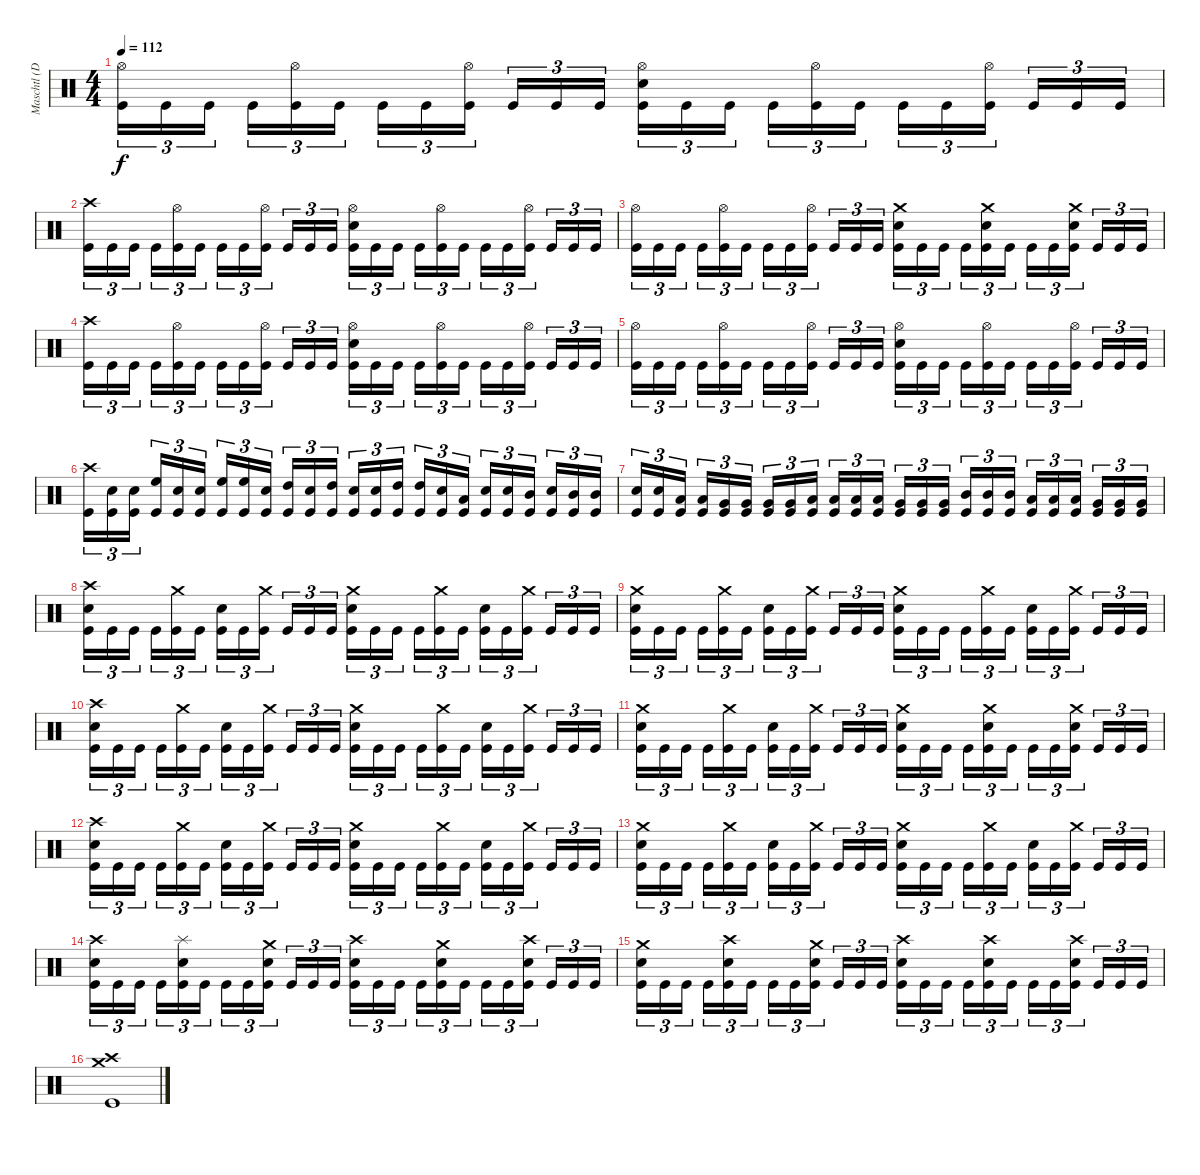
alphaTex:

\track ("Maschtl (Drums)" "Maschtl (D") {instrument percussion}
\staff {score}
\articulation defaults
\ts (4 4)
\tempo 112
\clef neutral
\ks c
("Hi-Hat (open)" "Kick (hit)").16{tu (3 2) dy f} "Kick (hit)".16{tu (3 2)} "Kick (hit)".16{tu (3 2)} "Kick (hit)".16{tu (3 2)} ("Hi-Hat (open)" "Kick (hit)").16{tu (3 2)} "Kick (hit)".16{tu (3 2)} "Kick (hit)".16{tu (3 2)} "Kick (hit)".16{tu (3 2)} ("Hi-Hat (open)" "Kick (hit)").16{tu (3 2)} "Kick (hit)".16{tu (3 2)} "Kick (hit)".16{tu (3 2)} "Kick (hit)".16{tu (3 2)} ("Hi-Hat (open)" "Electric Snare (hit)" "Kick (hit)").16{tu (3 2)} "Kick (hit)".16{tu (3 2)} "Kick (hit)".16{tu (3 2)} "Kick (hit)".16{tu (3 2)} ("Hi-Hat (open)" "Kick (hit)").16{tu (3 2)} "Kick (hit)".16{tu (3 2)} "Kick (hit)".16{tu (3 2)} "Kick (hit)".16{tu (3 2)} ("Hi-Hat (open)" "Kick (hit)").16{tu (3 2)} "Kick (hit)".16{tu (3 2)} "Kick (hit)".16{tu (3 2)} "Kick (hit)".16{tu (3 2)} |
("Crash high (hit)" "Kick (hit)").16{tu (3 2)} "Kick (hit)".16{tu (3 2)} "Kick (hit)".16{tu (3 2)} "Kick (hit)".16{tu (3 2)} ("Hi-Hat (open)" "Kick (hit)").16{tu (3 2)} "Kick (hit)".16{tu (3 2)} "Kick (hit)".16{tu (3 2)} "Kick (hit)".16{tu (3 2)} ("Hi-Hat (open)" "Kick (hit)").16{tu (3 2)} "Kick (hit)".16{tu (3 2)} "Kick (hit)".16{tu (3 2)} "Kick (hit)".16{tu (3 2)} ("Hi-Hat (open)" "Electric Snare (hit)" "Kick (hit)").16{tu (3 2)} "Kick (hit)".16{tu (3 2)} "Kick (hit)".16{tu (3 2)} "Kick (hit)".16{tu (3 2)} ("Hi-Hat (open)" "Kick (hit)").16{tu (3 2)} "Kick (hit)".16{tu (3 2)} "Kick (hit)".16{tu (3 2)} "Kick (hit)".16{tu (3 2)} ("Hi-Hat (open)" "Kick (hit)").16{tu (3 2)} "Kick (hit)".16{tu (3 2)} "Kick (hit)".16{tu (3 2)} "Kick (hit)".16{tu (3 2)} |
("Hi-Hat (open)" "Kick (hit)").16{tu (3 2)} "Kick (hit)".16{tu (3 2)} "Kick (hit)".16{tu (3 2)} "Kick (hit)".16{tu (3 2)} ("Hi-Hat (open)" "Kick (hit)").16{tu (3 2)} "Kick (hit)".16{tu (3 2)} "Kick (hit)".16{tu (3 2)} "Kick (hit)".16{tu (3 2)} ("Hi-Hat (open)" "Kick (hit)").16{tu (3 2)} "Kick (hit)".16{tu (3 2)} "Kick (hit)".16{tu (3 2)} "Kick (hit)".16{tu (3 2)} ("Crash medium (hit)" "Electric Snare (hit)" "Kick (hit)").16{tu (3 2)} "Kick (hit)".16{tu (3 2)} "Kick (hit)".16{tu (3 2)} "Kick (hit)".16{tu (3 2)} ("Crash medium (hit)" "Electric Snare (hit)" "Kick (hit)").16{tu (3 2)} "Kick (hit)".16{tu (3 2)} "Kick (hit)".16{tu (3 2)} "Kick (hit)".16{tu (3 2)} ("Crash medium (hit)" "Electric Snare (hit)" "Kick (hit)").16{tu (3 2)} "Kick (hit)".16{tu (3 2)} "Kick (hit)".16{tu (3 2)} "Kick (hit)".16{tu (3 2)} |
("Crash high (hit)" "Kick (hit)").16{tu (3 2)} "Kick (hit)".16{tu (3 2)} "Kick (hit)".16{tu (3 2)} "Kick (hit)".16{tu (3 2)} ("Hi-Hat (open)" "Kick (hit)").16{tu (3 2)} "Kick (hit)".16{tu (3 2)} "Kick (hit)".16{tu (3 2)} "Kick (hit)".16{tu (3 2)} ("Hi-Hat (open)" "Kick (hit)").16{tu (3 2)} "Kick (hit)".16{tu (3 2)} "Kick (hit)".16{tu (3 2)} "Kick (hit)".16{tu (3 2)} ("Hi-Hat (open)" "Electric Snare (hit)" "Kick (hit)").16{tu (3 2)} "Kick (hit)".16{tu (3 2)} "Kick (hit)".16{tu (3 2)} "Kick (hit)".16{tu (3 2)} ("Hi-Hat (open)" "Kick (hit)").16{tu (3 2)} "Kick (hit)".16{tu (3 2)} "Kick (hit)".16{tu (3 2)} "Kick (hit)".16{tu (3 2)} ("Hi-Hat (open)" "Kick (hit)").16{tu (3 2)} "Kick (hit)".16{tu (3 2)} "Kick (hit)".16{tu (3 2)} "Kick (hit)".16{tu (3 2)} |
("Hi-Hat (open)" "Kick (hit)").16{tu (3 2)} "Kick (hit)".16{tu (3 2)} "Kick (hit)".16{tu (3 2)} "Kick (hit)".16{tu (3 2)} ("Hi-Hat (open)" "Kick (hit)").16{tu (3 2)} "Kick (hit)".16{tu (3 2)} "Kick (hit)".16{tu (3 2)} "Kick (hit)".16{tu (3 2)} ("Hi-Hat (open)" "Kick (hit)").16{tu (3 2)} "Kick (hit)".16{tu (3 2)} "Kick (hit)".16{tu (3 2)} "Kick (hit)".16{tu (3 2)} ("Hi-Hat (open)" "Electric Snare (hit)" "Kick (hit)").16{tu (3 2)} "Kick (hit)".16{tu (3 2)} "Kick (hit)".16{tu (3 2)} "Kick (hit)".16{tu (3 2)} ("Hi-Hat (open)" "Kick (hit)").16{tu (3 2)} "Kick (hit)".16{tu (3 2)} "Kick (hit)".16{tu (3 2)} "Kick (hit)".16{tu (3 2)} ("Hi-Hat (open)" "Kick (hit)").16{tu (3 2)} "Kick (hit)".16{tu (3 2)} "Kick (hit)".16{tu (3 2)} "Kick (hit)".16{tu (3 2)} |
("Crash high (hit)" "Kick (hit)").16{tu (3 2)} ("Electric Snare (hit)" "Kick (hit)").16{tu (3 2)} ("Electric Snare (hit)" "Kick (hit)").16{tu (3 2)} ("High Floor Tom (hit)" "Kick (hit)").16{tu (3 2)} ("Electric Snare (hit)" "Kick (hit)").16{tu (3 2)} ("Electric Snare (hit)" "Kick (hit)").16{tu (3 2)} ("High Floor Tom (hit)" "Kick (hit)").16{tu (3 2)} ("High Floor Tom (hit)" "Kick (hit)").16{tu (3 2)} ("Electric Snare (hit)" "Kick (hit)").16{tu (3 2)} ("High Tom (hit)" "Kick (hit)").16{tu (3 2)} ("Electric Snare (hit)" "Kick (hit)").16{tu (3 2)} ("High Tom (hit)" "Kick (hit)").16{tu (3 2)} ("Electric Snare (hit)" "Kick (hit)").16{tu (3 2)} ("Electric Snare (hit)" "Kick (hit)").16{tu (3 2)} ("High Tom (hit)" "Kick (hit)").16{tu (3 2)} ("High Tom (hit)" "Kick (hit)").16{tu (3 2)} ("Electric Snare (hit)" "Kick (hit)").16{tu (3 2)} ("Low Tom (hit)" "Kick (hit)").16{tu (3 2)} ("Electric Snare (hit)" "Kick (hit)").16{tu (3 2)} ("Electric Snare (hit)" "Kick (hit)").16{tu (3 2)} ("Mid Tom (hit)" "Kick (hit)").16{tu (3 2)} ("Electric Snare (hit)" "Kick (hit)").16{tu (3 2)} ("Mid Tom (hit)" "Kick (hit)").16{tu (3 2)} ("Mid Tom (hit)" "Kick (hit)").16{tu (3 2)} |
("Electric Snare (hit)" "Kick (hit)").16{tu (3 2)} ("Electric Snare (hit)" "Kick (hit)").16{tu (3 2)} ("Low Tom (hit)" "Kick (hit)").16{tu (3 2)} ("Low Tom (hit)" "Kick (hit)").16{tu (3 2)} ("Very Low Tom (hit)" "Kick (hit)").16{tu (3 2)} ("Very Low Tom (hit)" "Kick (hit)").16{tu (3 2)} ("Very Low Tom (hit)" "Kick (hit)").16{tu (3 2)} ("Very Low Tom (hit)" "Kick (hit)").16{tu (3 2)} ("Low Floor Tom (hit)" "Kick (hit)").16{tu (3 2)} ("Low Floor Tom (hit)" "Kick (hit)").16{tu (3 2)} ("Low Floor Tom (hit)" "Kick (hit)").16{tu (3 2)} ("Low Floor Tom (hit)" "Kick (hit)").16{tu (3 2)} ("Very Low Tom (hit)" "Kick (hit)").16{tu (3 2)} ("Very Low Tom (hit)" "Kick (hit)").16{tu (3 2)} ("Very Low Tom (hit)" "Kick (hit)").16{tu (3 2)} ("Mid Tom (hit)" "Kick (hit)").16{tu (3 2)} ("Mid Tom (hit)" "Kick (hit)").16{tu (3 2)} ("Mid Tom (hit)" "Kick (hit)").16{tu (3 2)} ("Low Tom (hit)" "Kick (hit)").16{tu (3 2)} ("Low Tom (hit)" "Kick (hit)").16{tu (3 2)} ("Low Tom (hit)" "Kick (hit)").16{tu (3 2)} ("Very Low Tom (hit)" "Kick (hit)").16{tu (3 2)} ("Very Low Tom (hit)" "Kick (hit)").16{tu (3 2)} ("Very Low Tom (hit)" "Kick (hit)").16{tu (3 2)} |
("Crash high (hit)" "Electric Snare (hit)" "Kick (hit)").16{tu (3 2)} "Kick (hit)".16{tu (3 2)} "Kick (hit)".16{tu (3 2)} "Kick (hit)".16{tu (3 2)} ("Crash medium (hit)" "Kick (hit)").16{tu (3 2)} "Kick (hit)".16{tu (3 2)} ("Electric Snare (hit)" "Kick (hit)").16{tu (3 2)} "Kick (hit)".16{tu (3 2)} ("Crash medium (hit)" "Kick (hit)").16{tu (3 2)} "Kick (hit)".16{tu (3 2)} "Kick (hit)".16{tu (3 2)} "Kick (hit)".16{tu (3 2)} ("Crash medium (hit)" "Electric Snare (hit)" "Kick (hit)").16{tu (3 2)} "Kick (hit)".16{tu (3 2)} "Kick (hit)".16{tu (3 2)} "Kick (hit)".16{tu (3 2)} ("Crash medium (hit)" "Kick (hit)").16{tu (3 2)} "Kick (hit)".16{tu (3 2)} ("Electric Snare (hit)" "Kick (hit)").16{tu (3 2)} "Kick (hit)".16{tu (3 2)} ("Crash medium (hit)" "Kick (hit)").16{tu (3 2)} "Kick (hit)".16{tu (3 2)} "Kick (hit)".16{tu (3 2)} "Kick (hit)".16{tu (3 2)} |
("Crash medium (hit)" "Electric Snare (hit)" "Kick (hit)").16{tu (3 2)} "Kick (hit)".16{tu (3 2)} "Kick (hit)".16{tu (3 2)} "Kick (hit)".16{tu (3 2)} ("Crash medium (hit)" "Kick (hit)").16{tu (3 2)} "Kick (hit)".16{tu (3 2)} ("Electric Snare (hit)" "Kick (hit)").16{tu (3 2)} "Kick (hit)".16{tu (3 2)} ("Crash medium (hit)" "Kick (hit)").16{tu (3 2)} "Kick (hit)".16{tu (3 2)} "Kick (hit)".16{tu (3 2)} "Kick (hit)".16{tu (3 2)} ("Crash medium (hit)" "Electric Snare (hit)" "Kick (hit)").16{tu (3 2)} "Kick (hit)".16{tu (3 2)} "Kick (hit)".16{tu (3 2)} "Kick (hit)".16{tu (3 2)} ("Crash medium (hit)" "Kick (hit)").16{tu (3 2)} "Kick (hit)".16{tu (3 2)} ("Electric Snare (hit)" "Kick (hit)").16{tu (3 2)} "Kick (hit)".16{tu (3 2)} ("Crash medium (hit)" "Kick (hit)").16{tu (3 2)} "Kick (hit)".16{tu (3 2)} "Kick (hit)".16{tu (3 2)} "Kick (hit)".16{tu (3 2)} |
("Crash high (hit)" "Electric Snare (hit)" "Kick (hit)").16{tu (3 2)} "Kick (hit)".16{tu (3 2)} "Kick (hit)".16{tu (3 2)} "Kick (hit)".16{tu (3 2)} ("Crash medium (hit)" "Kick (hit)").16{tu (3 2)} "Kick (hit)".16{tu (3 2)} ("Electric Snare (hit)" "Kick (hit)").16{tu (3 2)} "Kick (hit)".16{tu (3 2)} ("Crash medium (hit)" "Kick (hit)").16{tu (3 2)} "Kick (hit)".16{tu (3 2)} "Kick (hit)".16{tu (3 2)} "Kick (hit)".16{tu (3 2)} ("Crash medium (hit)" "Electric Snare (hit)" "Kick (hit)").16{tu (3 2)} "Kick (hit)".16{tu (3 2)} "Kick (hit)".16{tu (3 2)} "Kick (hit)".16{tu (3 2)} ("Crash medium (hit)" "Kick (hit)").16{tu (3 2)} "Kick (hit)".16{tu (3 2)} ("Electric Snare (hit)" "Kick (hit)").16{tu (3 2)} "Kick (hit)".16{tu (3 2)} ("Crash medium (hit)" "Kick (hit)").16{tu (3 2)} "Kick (hit)".16{tu (3 2)} "Kick (hit)".16{tu (3 2)} "Kick (hit)".16{tu (3 2)} |
("Crash medium (hit)" "Electric Snare (hit)" "Kick (hit)").16{tu (3 2)} "Kick (hit)".16{tu (3 2)} "Kick (hit)".16{tu (3 2)} "Kick (hit)".16{tu (3 2)} ("Crash medium (hit)" "Kick (hit)").16{tu (3 2)} "Kick (hit)".16{tu (3 2)} ("Electric Snare (hit)" "Kick (hit)").16{tu (3 2)} "Kick (hit)".16{tu (3 2)} ("Crash medium (hit)" "Kick (hit)").16{tu (3 2)} "Kick (hit)".16{tu (3 2)} "Kick (hit)".16{tu (3 2)} "Kick (hit)".16{tu (3 2)} ("Crash medium (hit)" "Electric Snare (hit)" "Kick (hit)").16{tu (3 2)} "Kick (hit)".16{tu (3 2)} "Kick (hit)".16{tu (3 2)} "Kick (hit)".16{tu (3 2)} ("Crash medium (hit)" "Electric Snare (hit)" "Kick (hit)").16{tu (3 2)} "Kick (hit)".16{tu (3 2)} "Kick (hit)".16{tu (3 2)} "Kick (hit)".16{tu (3 2)} ("Crash medium (hit)" "Electric Snare (hit)" "Kick (hit)").16{tu (3 2)} "Kick (hit)".16{tu (3 2)} "Kick (hit)".16{tu (3 2)} "Kick (hit)".16{tu (3 2)} |
("Crash high (hit)" "Electric Snare (hit)" "Kick (hit)").16{tu (3 2)} "Kick (hit)".16{tu (3 2)} "Kick (hit)".16{tu (3 2)} "Kick (hit)".16{tu (3 2)} ("Crash medium (hit)" "Kick (hit)").16{tu (3 2)} "Kick (hit)".16{tu (3 2)} ("Electric Snare (hit)" "Kick (hit)").16{tu (3 2)} "Kick (hit)".16{tu (3 2)} ("Crash medium (hit)" "Kick (hit)").16{tu (3 2)} "Kick (hit)".16{tu (3 2)} "Kick (hit)".16{tu (3 2)} "Kick (hit)".16{tu (3 2)} ("Crash medium (hit)" "Electric Snare (hit)" "Kick (hit)").16{tu (3 2)} "Kick (hit)".16{tu (3 2)} "Kick (hit)".16{tu (3 2)} "Kick (hit)".16{tu (3 2)} ("Crash medium (hit)" "Kick (hit)").16{tu (3 2)} "Kick (hit)".16{tu (3 2)} ("Electric Snare (hit)" "Kick (hit)").16{tu (3 2)} "Kick (hit)".16{tu (3 2)} ("Crash medium (hit)" "Kick (hit)").16{tu (3 2)} "Kick (hit)".16{tu (3 2)} "Kick (hit)".16{tu (3 2)} "Kick (hit)".16{tu (3 2)} |
("Crash medium (hit)" "Electric Snare (hit)" "Kick (hit)").16{tu (3 2)} "Kick (hit)".16{tu (3 2)} "Kick (hit)".16{tu (3 2)} "Kick (hit)".16{tu (3 2)} ("Crash medium (hit)" "Kick (hit)").16{tu (3 2)} "Kick (hit)".16{tu (3 2)} ("Electric Snare (hit)" "Kick (hit)").16{tu (3 2)} "Kick (hit)".16{tu (3 2)} ("Crash medium (hit)" "Kick (hit)").16{tu (3 2)} "Kick (hit)".16{tu (3 2)} "Kick (hit)".16{tu (3 2)} "Kick (hit)".16{tu (3 2)} ("Crash medium (hit)" "Electric Snare (hit)" "Kick (hit)").16{tu (3 2)} "Kick (hit)".16{tu (3 2)} "Kick (hit)".16{tu (3 2)} "Kick (hit)".16{tu (3 2)} ("Crash medium (hit)" "Kick (hit)").16{tu (3 2)} "Kick (hit)".16{tu (3 2)} ("Electric Snare (hit)" "Kick (hit)").16{tu (3 2)} "Kick (hit)".16{tu (3 2)} ("Crash medium (hit)" "Kick (hit)").16{tu (3 2)} "Kick (hit)".16{tu (3 2)} "Kick (hit)".16{tu (3 2)} "Kick (hit)".16{tu (3 2)} |
("Crash high (hit)" "Electric Snare (hit)" "Kick (hit)").16{tu (3 2)} "Kick (hit)".16{tu (3 2)} "Kick (hit)".16{tu (3 2)} "Kick (hit)".16{tu (3 2)} ("Splash (hit)" "Electric Snare (hit)" "Kick (hit)").16{tu (3 2)} "Kick (hit)".16{tu (3 2)} "Kick (hit)".16{tu (3 2)} "Kick (hit)".16{tu (3 2)} ("Crash medium (hit)" "Electric Snare (hit)" "Kick (hit)").16{tu (3 2)} "Kick (hit)".16{tu (3 2)} "Kick (hit)".16{tu (3 2)} "Kick (hit)".16{tu (3 2)} ("Crash high (hit)" "Electric Snare (hit)" "Kick (hit)").16{tu (3 2)} "Kick (hit)".16{tu (3 2)} "Kick (hit)".16{tu (3 2)} "Kick (hit)".16{tu (3 2)} ("Crash medium (hit)" "Electric Snare (hit)" "Kick (hit)").16{tu (3 2)} "Kick (hit)".16{tu (3 2)} "Kick (hit)".16{tu (3 2)} "Kick (hit)".16{tu (3 2)} ("Crash high (hit)" "Electric Snare (hit)" "Kick (hit)").16{tu (3 2)} "Kick (hit)".16{tu (3 2)} "Kick (hit)".16{tu (3 2)} "Kick (hit)".16{tu (3 2)} |
("Crash medium (hit)" "Electric Snare (hit)" "Kick (hit)").16{tu (3 2)} "Kick (hit)".16{tu (3 2)} "Kick (hit)".16{tu (3 2)} "Kick (hit)".16{tu (3 2)} ("Crash high (hit)" "Electric Snare (hit)" "Kick (hit)").16{tu (3 2)} "Kick (hit)".16{tu (3 2)} "Kick (hit)".16{tu (3 2)} "Kick (hit)".16{tu (3 2)} ("Crash medium (hit)" "Electric Snare (hit)" "Kick (hit)").16{tu (3 2)} "Kick (hit)".16{tu (3 2)} "Kick (hit)".16{tu (3 2)} "Kick (hit)".16{tu (3 2)} ("Crash high (hit)" "Electric Snare (hit)" "Kick (hit)").16{tu (3 2)} "Kick (hit)".16{tu (3 2)} "Kick (hit)".16{tu (3 2)} "Kick (hit)".16{tu (3 2)} ("Crash high (hit)" "Electric Snare (hit)" "Kick (hit)").16{tu (3 2)} "Kick (hit)".16{tu (3 2)} "Kick (hit)".16{tu (3 2)} "Kick (hit)".16{tu (3 2)} ("Crash high (hit)" "Electric Snare (hit)" "Kick (hit)").16{tu (3 2)} "Kick (hit)".16{tu (3 2)} "Kick (hit)".16{tu (3 2)} "Kick (hit)".16{tu (3 2)} |
("Crash high (hit)" "Crash medium (hit)" "Kick (hit)").1
